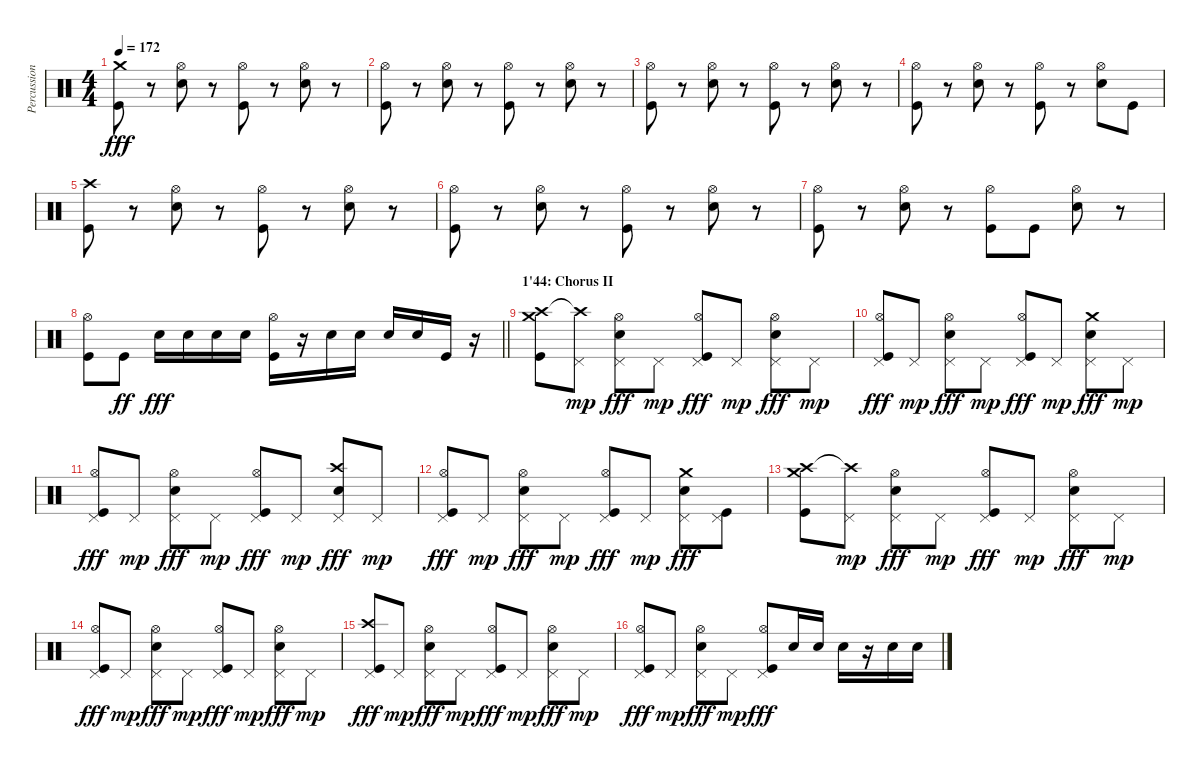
\track ("Percussion" "Percussion") {instrument percussion}
\staff {score}
\articulation defaults
\ts (4 4)
\tempo 172
\clef neutral
\ks c
("Crash medium (hit)" "Kick (hit)").8{dy fff} r.8 ("Hi-Hat (open)" "Electric Snare (hit)").8 r.8 ("Hi-Hat (open)" "Kick (hit)").8 r.8 ("Hi-Hat (open)" "Electric Snare (hit)").8 r.8 |
("Hi-Hat (open)" "Kick (hit)").8 r.8 ("Hi-Hat (open)" "Electric Snare (hit)").8 r.8 ("Hi-Hat (open)" "Kick (hit)").8 r.8 ("Hi-Hat (open)" "Electric Snare (hit)").8 r.8 |
("Hi-Hat (open)" "Kick (hit)").8 r.8 ("Hi-Hat (open)" "Electric Snare (hit)").8 r.8 ("Hi-Hat (open)" "Kick (hit)").8 r.8 ("Hi-Hat (open)" "Electric Snare (hit)").8 r.8 |
("Hi-Hat (open)" "Kick (hit)").8 r.8 ("Hi-Hat (open)" "Electric Snare (hit)").8 r.8 ("Hi-Hat (open)" "Kick (hit)").8 r.8 ("Hi-Hat (open)" "Electric Snare (hit)").8 "Kick (hit)".8 |
("Crash high (hit)" "Kick (hit)").8 r.8 ("Hi-Hat (open)" "Electric Snare (hit)").8 r.8 ("Hi-Hat (open)" "Kick (hit)").8 r.8 ("Hi-Hat (open)" "Electric Snare (hit)").8 r.8 |
("Hi-Hat (open)" "Kick (hit)").8 r.8 ("Hi-Hat (open)" "Electric Snare (hit)").8 r.8 ("Hi-Hat (open)" "Kick (hit)").8 r.8 ("Hi-Hat (open)" "Electric Snare (hit)").8 r.8 |
("Hi-Hat (open)" "Kick (hit)").8 r.8 ("Hi-Hat (open)" "Electric Snare (hit)").8 r.8 ("Hi-Hat (open)" "Kick (hit)").8 "Kick (hit)".8 ("Hi-Hat (open)" "Electric Snare (hit)").8 r.8 |
\barLineRight lightlight
("Hi-Hat (open)" "Kick (hit)").8 "Kick (hit)".8{dy ff} "Electric Snare (hit)".16{dy fff} "Electric Snare (hit)".16 "Electric Snare (hit)".16 "Electric Snare (hit)".16 ("Hi-Hat (open)" "Kick (hit)").16 r.16 "Electric Snare (hit)".16 "Electric Snare (hit)".16 "Electric Snare (hit)".16 "Electric Snare (hit)".16 "Kick (hit)".16 r.16 |
\section ("" "1'44: Chorus II")
("Crash medium (hit)" "Crash high (hit)" "Kick (hit)").8 ("Pedal Hi-Hat (hit)" "Crash high (hit)"{t}).8{dy mp} ("Pedal Hi-Hat (hit)" "Hi-Hat (open)" "Electric Snare (hit)").8{dy fff} "Pedal Hi-Hat (hit)".8{dy mp} ("Pedal Hi-Hat (hit)" "Hi-Hat (open)" "Kick (hit)").8{dy fff} "Pedal Hi-Hat (hit)".8{dy mp} ("Pedal Hi-Hat (hit)" "Hi-Hat (open)" "Electric Snare (hit)").8{dy fff} "Pedal Hi-Hat (hit)".8{dy mp} |
("Pedal Hi-Hat (hit)" "Hi-Hat (open)" "Kick (hit)").8{dy fff} "Pedal Hi-Hat (hit)".8{dy mp} ("Pedal Hi-Hat (hit)" "Hi-Hat (open)" "Electric Snare (hit)").8{dy fff} "Pedal Hi-Hat (hit)".8{dy mp} ("Pedal Hi-Hat (hit)" "Hi-Hat (open)" "Kick (hit)").8{dy fff} "Pedal Hi-Hat (hit)".8{dy mp} ("Pedal Hi-Hat (hit)" "Crash medium (hit)" "Electric Snare (hit)").8{dy fff} "Pedal Hi-Hat (hit)".8{dy mp} |
("Pedal Hi-Hat (hit)" "Hi-Hat (open)" "Kick (hit)").8{dy fff} "Pedal Hi-Hat (hit)".8{dy mp} ("Pedal Hi-Hat (hit)" "Hi-Hat (open)" "Electric Snare (hit)").8{dy fff} "Pedal Hi-Hat (hit)".8{dy mp} ("Pedal Hi-Hat (hit)" "Hi-Hat (open)" "Kick (hit)").8{dy fff} "Pedal Hi-Hat (hit)".8{dy mp} ("Pedal Hi-Hat (hit)" "Crash high (hit)" "Electric Snare (hit)").8{dy fff} "Pedal Hi-Hat (hit)".8{dy mp} |
("Pedal Hi-Hat (hit)" "Hi-Hat (open)" "Kick (hit)").8{dy fff} "Pedal Hi-Hat (hit)".8{dy mp} ("Pedal Hi-Hat (hit)" "Hi-Hat (open)" "Electric Snare (hit)").8{dy fff} "Pedal Hi-Hat (hit)".8{dy mp} ("Pedal Hi-Hat (hit)" "Hi-Hat (open)" "Kick (hit)").8{dy fff} "Pedal Hi-Hat (hit)".8{dy mp} ("Pedal Hi-Hat (hit)" "Crash medium (hit)" "Electric Snare (hit)").8{dy fff} ("Pedal Hi-Hat (hit)" "Kick (hit)").8 |
("Crash medium (hit)" "Crash high (hit)" "Kick (hit)").8 ("Pedal Hi-Hat (hit)" "Crash high (hit)"{t}).8{dy mp} ("Pedal Hi-Hat (hit)" "Hi-Hat (open)" "Electric Snare (hit)").8{dy fff} "Pedal Hi-Hat (hit)".8{dy mp} ("Pedal Hi-Hat (hit)" "Hi-Hat (open)" "Kick (hit)").8{dy fff} "Pedal Hi-Hat (hit)".8{dy mp} ("Pedal Hi-Hat (hit)" "Hi-Hat (open)" "Electric Snare (hit)").8{dy fff} "Pedal Hi-Hat (hit)".8{dy mp} |
("Pedal Hi-Hat (hit)" "Hi-Hat (open)" "Kick (hit)").8{dy fff} "Pedal Hi-Hat (hit)".8{dy mp} ("Pedal Hi-Hat (hit)" "Hi-Hat (open)" "Electric Snare (hit)").8{dy fff} "Pedal Hi-Hat (hit)".8{dy mp} ("Pedal Hi-Hat (hit)" "Hi-Hat (open)" "Kick (hit)").8{dy fff} "Pedal Hi-Hat (hit)".8{dy mp} ("Pedal Hi-Hat (hit)" "Hi-Hat (open)" "Electric Snare (hit)").8{dy fff} "Pedal Hi-Hat (hit)".8{dy mp} |
("Pedal Hi-Hat (hit)" "Crash high (hit)" "Kick (hit)").8{dy fff} "Pedal Hi-Hat (hit)".8{dy mp} ("Pedal Hi-Hat (hit)" "Hi-Hat (open)" "Electric Snare (hit)").8{dy fff} "Pedal Hi-Hat (hit)".8{dy mp} ("Pedal Hi-Hat (hit)" "Hi-Hat (open)" "Kick (hit)").8{dy fff} "Pedal Hi-Hat (hit)".8{dy mp} ("Pedal Hi-Hat (hit)" "Hi-Hat (open)" "Electric Snare (hit)").8{dy fff} "Pedal Hi-Hat (hit)".8{dy mp} |
("Pedal Hi-Hat (hit)" "Hi-Hat (open)" "Kick (hit)").8{dy fff} "Pedal Hi-Hat (hit)".8{dy mp} ("Pedal Hi-Hat (hit)" "Hi-Hat (open)" "Electric Snare (hit)").8{dy fff} "Pedal Hi-Hat (hit)".8{dy mp} ("Pedal Hi-Hat (hit)" "Hi-Hat (open)" "Kick (hit)").8{dy fff} "Electric Snare (hit)".16 "Electric Snare (hit)".16 "Electric Snare (hit)".16 r.16 "Electric Snare (hit)".16 "Electric Snare (hit)".16
